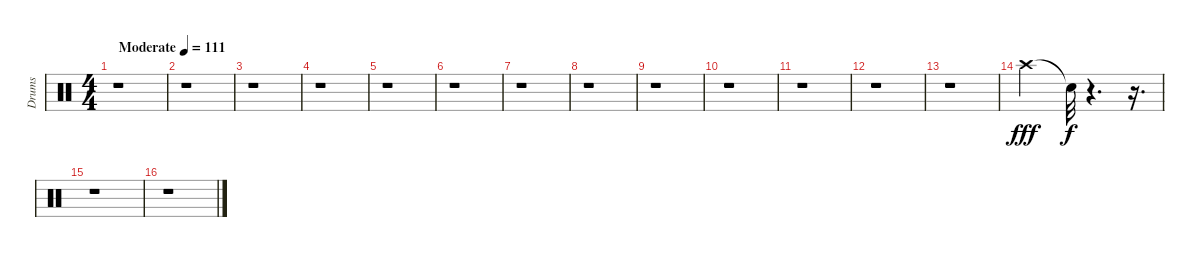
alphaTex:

\track ("Drums" "Drums") {instrument percussion}
\staff {score}
\articulation defaults
\ts (4 4)
\tempo (111 "Moderate")
\clef neutral
\ks c
r.1{dy fff} |
r.1 |
r.1 |
r.1 |
r.1 |
r.1 |
r.1 |
r.1 |
r.1 |
r.1 |
r.1 |
r.1 |
r.1 |
"Crash high (hit)".2 "Snare (hit)"{t}.32{dy f} r.4{d} r.16{d} |
r.1 |
r.1
